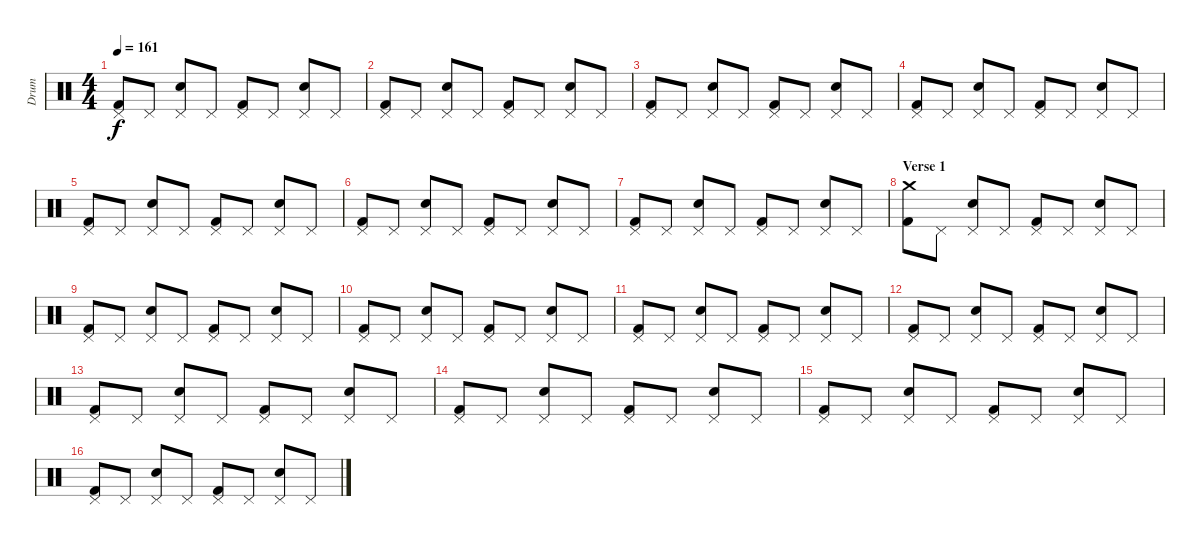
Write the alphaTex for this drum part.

\track ("Drum" "Drum") {instrument percussion}
\staff {score}
\articulation defaults
\ts (4 4)
\tempo 161
\clef neutral
\ks c
("Pedal Hi-Hat (hit)" "Kick (hit) 2").8{dy f} "Pedal Hi-Hat (hit)".8 ("Pedal Hi-Hat (hit)" "Snare (hit) 2").8 "Pedal Hi-Hat (hit)".8 ("Pedal Hi-Hat (hit)" "Kick (hit) 2").8 "Pedal Hi-Hat (hit)".8 ("Pedal Hi-Hat (hit)" "Snare (hit) 2").8 "Pedal Hi-Hat (hit)".8 |
("Pedal Hi-Hat (hit)" "Kick (hit) 2").8 "Pedal Hi-Hat (hit)".8 ("Pedal Hi-Hat (hit)" "Snare (hit) 2").8 "Pedal Hi-Hat (hit)".8 ("Pedal Hi-Hat (hit)" "Kick (hit) 2").8 "Pedal Hi-Hat (hit)".8 ("Pedal Hi-Hat (hit)" "Snare (hit) 2").8 "Pedal Hi-Hat (hit)".8 |
("Pedal Hi-Hat (hit)" "Kick (hit) 2").8 "Pedal Hi-Hat (hit)".8 ("Pedal Hi-Hat (hit)" "Snare (hit) 2").8 "Pedal Hi-Hat (hit)".8 ("Pedal Hi-Hat (hit)" "Kick (hit) 2").8 "Pedal Hi-Hat (hit)".8 ("Pedal Hi-Hat (hit)" "Snare (hit) 2").8 "Pedal Hi-Hat (hit)".8 |
("Pedal Hi-Hat (hit)" "Kick (hit) 2").8 "Pedal Hi-Hat (hit)".8 ("Pedal Hi-Hat (hit)" "Snare (hit) 2").8 "Pedal Hi-Hat (hit)".8 ("Pedal Hi-Hat (hit)" "Kick (hit) 2").8 "Pedal Hi-Hat (hit)".8 ("Pedal Hi-Hat (hit)" "Snare (hit) 2").8 "Pedal Hi-Hat (hit)".8 |
("Pedal Hi-Hat (hit)" "Kick (hit) 2").8 "Pedal Hi-Hat (hit)".8 ("Pedal Hi-Hat (hit)" "Snare (hit) 2").8 "Pedal Hi-Hat (hit)".8 ("Pedal Hi-Hat (hit)" "Kick (hit) 2").8 "Pedal Hi-Hat (hit)".8 ("Pedal Hi-Hat (hit)" "Snare (hit) 2").8 "Pedal Hi-Hat (hit)".8 |
("Pedal Hi-Hat (hit)" "Kick (hit) 2").8 "Pedal Hi-Hat (hit)".8 ("Pedal Hi-Hat (hit)" "Snare (hit) 2").8 "Pedal Hi-Hat (hit)".8 ("Pedal Hi-Hat (hit)" "Kick (hit) 2").8 "Pedal Hi-Hat (hit)".8 ("Pedal Hi-Hat (hit)" "Snare (hit) 2").8 "Pedal Hi-Hat (hit)".8 |
("Pedal Hi-Hat (hit)" "Kick (hit) 2").8 "Pedal Hi-Hat (hit)".8 ("Pedal Hi-Hat (hit)" "Snare (hit) 2").8 "Pedal Hi-Hat (hit)".8 ("Pedal Hi-Hat (hit)" "Kick (hit) 2").8 "Pedal Hi-Hat (hit)".8 ("Pedal Hi-Hat (hit)" "Snare (hit) 2").8 "Pedal Hi-Hat (hit)".8 |
\section ("" "Verse 1")
("Crash medium (hit)" "Kick (hit) 2").8 "Pedal Hi-Hat (hit)".8 ("Pedal Hi-Hat (hit)" "Snare (hit) 2").8 "Pedal Hi-Hat (hit)".8 ("Pedal Hi-Hat (hit)" "Kick (hit) 2").8 "Pedal Hi-Hat (hit)".8 ("Pedal Hi-Hat (hit)" "Snare (hit) 2").8 "Pedal Hi-Hat (hit)".8 |
("Pedal Hi-Hat (hit)" "Kick (hit) 2").8 "Pedal Hi-Hat (hit)".8 ("Pedal Hi-Hat (hit)" "Snare (hit) 2").8 "Pedal Hi-Hat (hit)".8 ("Pedal Hi-Hat (hit)" "Kick (hit) 2").8 "Pedal Hi-Hat (hit)".8 ("Pedal Hi-Hat (hit)" "Snare (hit) 2").8 "Pedal Hi-Hat (hit)".8 |
("Pedal Hi-Hat (hit)" "Kick (hit) 2").8 "Pedal Hi-Hat (hit)".8 ("Pedal Hi-Hat (hit)" "Snare (hit) 2").8 "Pedal Hi-Hat (hit)".8 ("Pedal Hi-Hat (hit)" "Kick (hit) 2").8 "Pedal Hi-Hat (hit)".8 ("Pedal Hi-Hat (hit)" "Snare (hit) 2").8 "Pedal Hi-Hat (hit)".8 |
("Pedal Hi-Hat (hit)" "Kick (hit) 2").8 "Pedal Hi-Hat (hit)".8 ("Pedal Hi-Hat (hit)" "Snare (hit) 2").8 "Pedal Hi-Hat (hit)".8 ("Pedal Hi-Hat (hit)" "Kick (hit) 2").8 "Pedal Hi-Hat (hit)".8 ("Pedal Hi-Hat (hit)" "Snare (hit) 2").8 "Pedal Hi-Hat (hit)".8 |
("Pedal Hi-Hat (hit)" "Kick (hit) 2").8 "Pedal Hi-Hat (hit)".8 ("Pedal Hi-Hat (hit)" "Snare (hit) 2").8 "Pedal Hi-Hat (hit)".8 ("Pedal Hi-Hat (hit)" "Kick (hit) 2").8 "Pedal Hi-Hat (hit)".8 ("Pedal Hi-Hat (hit)" "Snare (hit) 2").8 "Pedal Hi-Hat (hit)".8 |
("Pedal Hi-Hat (hit)" "Kick (hit) 2").8 "Pedal Hi-Hat (hit)".8 ("Pedal Hi-Hat (hit)" "Snare (hit) 2").8 "Pedal Hi-Hat (hit)".8 ("Pedal Hi-Hat (hit)" "Kick (hit) 2").8 "Pedal Hi-Hat (hit)".8 ("Pedal Hi-Hat (hit)" "Snare (hit) 2").8 "Pedal Hi-Hat (hit)".8 |
("Pedal Hi-Hat (hit)" "Kick (hit) 2").8 "Pedal Hi-Hat (hit)".8 ("Pedal Hi-Hat (hit)" "Snare (hit) 2").8 "Pedal Hi-Hat (hit)".8 ("Pedal Hi-Hat (hit)" "Kick (hit) 2").8 "Pedal Hi-Hat (hit)".8 ("Pedal Hi-Hat (hit)" "Snare (hit) 2").8 "Pedal Hi-Hat (hit)".8 |
("Pedal Hi-Hat (hit)" "Kick (hit) 2").8 "Pedal Hi-Hat (hit)".8 ("Pedal Hi-Hat (hit)" "Snare (hit) 2").8 "Pedal Hi-Hat (hit)".8 ("Pedal Hi-Hat (hit)" "Kick (hit) 2").8 "Pedal Hi-Hat (hit)".8 ("Pedal Hi-Hat (hit)" "Snare (hit) 2").8 "Pedal Hi-Hat (hit)".8 |
("Pedal Hi-Hat (hit)" "Kick (hit) 2").8 "Pedal Hi-Hat (hit)".8 ("Pedal Hi-Hat (hit)" "Snare (hit) 2").8 "Pedal Hi-Hat (hit)".8 ("Pedal Hi-Hat (hit)" "Kick (hit) 2").8 "Pedal Hi-Hat (hit)".8 ("Pedal Hi-Hat (hit)" "Snare (hit) 2").8 "Pedal Hi-Hat (hit)".8
